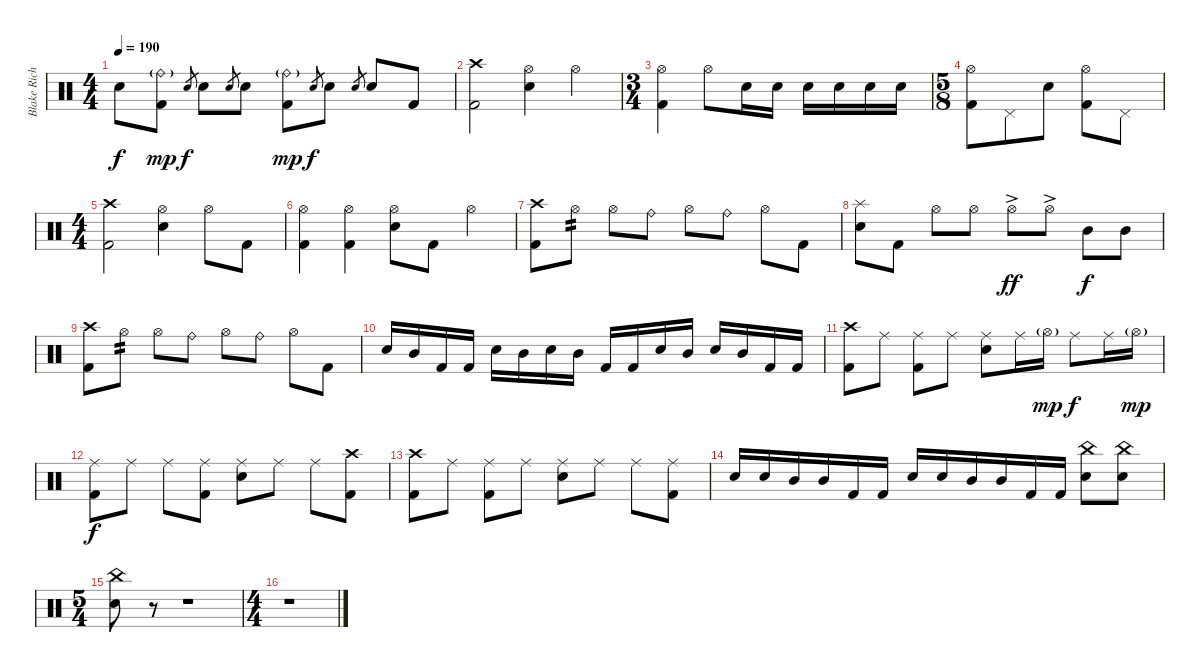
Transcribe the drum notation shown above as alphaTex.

\track ("Blake Richardson" "Blake Rich") {instrument percussion}
\staff {score}
\articulation defaults
\ts (4 4)
\tempo 190
\clef neutral
\ks c "Electric Snare (hit)".8{dy f}
("Ride (bell)"{g} "Kick (hit) 2").8{dy mp} "Electric Snare (hit)".8{gr dy f} "Electric Snare (hit)".8 "Electric Snare (hit)".8{gr} "Electric Snare (hit)".8 ("Ride (bell)"{g} "Kick (hit) 2").8{dy mp} "Electric Snare (hit)".8{gr dy f} "Electric Snare (hit)".8 "Electric Snare (hit)".8{gr} "Electric Snare (hit)".8 "Kick (hit) 2".8 |
("Crash high (hit)" "Kick (hit) 2").2 ("Hi-Hat (open)" "Electric Snare (hit)").4 "Hi-Hat (open)".4 |
\ts (3 4)
("Hi-Hat (open)" "Kick (hit) 2").4 "Hi-Hat (open)".8 "Electric Snare (hit)".16 "Electric Snare (hit)".16 "Electric Snare (hit)".16 "Electric Snare (hit)".16 "Electric Snare (hit)".16 "Electric Snare (hit)".16 |
\ts (5 8)
("Hi-Hat (open)" "Kick (hit) 2").8 "Pedal Hi-Hat (hit)".8 "Electric Snare (hit)".8 ("Hi-Hat (open)" "Kick (hit) 2").8 "Pedal Hi-Hat (hit)".8 |
\ts (4 4)
("Crash high (hit)" "Kick (hit) 2").2 ("Hi-Hat (open)" "Electric Snare (hit)").4 "Hi-Hat (open)".8 "Kick (hit) 2".8 |
("Hi-Hat (open)" "Kick (hit) 2").4 ("Hi-Hat (open)" "Kick (hit) 2").4 ("Hi-Hat (open)" "Electric Snare (hit)").8 "Kick (hit) 2".8 "Hi-Hat (open)".4 |
("Crash high (hit)" "Kick (hit) 2").8 "Hi-Hat (open)".8{tp 2} "Hi-Hat (open)".8 "Ride (bell)".8 "Hi-Hat (open)".8 "Ride (bell)".8 "Hi-Hat (open)".8 "Kick (hit) 2".8 |
("Splash (hit)" "Electric Snare (hit)").8 "Kick (hit) 2".8 "Hi-Hat (open)".8 "Hi-Hat (open)".8 "Hi-Hat (open)"{ac}.8{dy ff} "Hi-Hat (open)"{ac}.8 "Mid Tom (hit)".8{dy f} "Mid Tom (hit)".8 |
("Crash high (hit)" "Kick (hit) 2").8 "Hi-Hat (open)".8{tp 2} "Hi-Hat (open)".8 "Ride (bell)".8 "Hi-Hat (open)".8 "Ride (bell)".8 "Hi-Hat (open)".8 "Kick (hit) 2".8 |
"Electric Snare (hit)".16 "Mid Tom (hit)".16 "Kick (hit) 2".16 "Kick (hit) 2".16 "Electric Snare (hit)".16 "Mid Tom (hit)".16 "Electric Snare (hit)".16 "Mid Tom (hit)".16 "Kick (hit) 2".16 "Kick (hit) 2".16 "Electric Snare (hit)".16 "Mid Tom (hit)".16 "Electric Snare (hit)".16 "Mid Tom (hit)".16 "Kick (hit) 2".16 "Kick (hit) 2".16 |
("Crash high (hit)" "Kick (hit) 2").8 "Ride (middle)".8 ("Ride (middle)" "Kick (hit) 2").8 "Ride (middle)".8 ("Ride (middle)" "Electric Snare (hit)").8 "Ride (middle)".16 "Hi-Hat (open)"{g}.16{dy mp} "Ride (middle)".8{dy f} "Ride (middle)".16 "Hi-Hat (open)"{g}.16{dy mp} |
("Ride (middle)" "Kick (hit) 2").8{dy f} "Ride (middle)".8 "Ride (middle)".8 ("Ride (middle)" "Kick (hit) 2").8 ("Ride (middle)" "Electric Snare (hit)").8 "Ride (middle)".8 "Ride (middle)".8 ("Crash high (hit)" "Kick (hit) 2").8 |
("Crash high (hit)" "Kick (hit) 2").8 "Ride (middle)".8 ("Ride (middle)" "Kick (hit) 2").8 "Ride (middle)".8 ("Ride (middle)" "Electric Snare (hit)").8 "Ride (middle)".8 "Ride (middle)".8 ("Ride (middle)" "Kick (hit) 2").8 |
"Electric Snare (hit)".16 "Electric Snare (hit)".16 "Mid Tom (hit)".16 "Mid Tom (hit)".16{beam merge} "Kick (hit) 2".16 "Kick (hit) 2".16{beam split} "Electric Snare (hit)".16 "Electric Snare (hit)".16{beam merge} "Mid Tom (hit)".16 "Mid Tom (hit)".16 "Kick (hit) 2".16 "Kick (hit) 2".16 ("China (hit)" "Electric Snare (hit)").8 ("China (hit)" "Electric Snare (hit)").8 |
\ts (5 4)
("China (hit)" "Electric Snare (hit)").8 r.8{volume 0} r.1 |
\ts (4 4)
r.1
